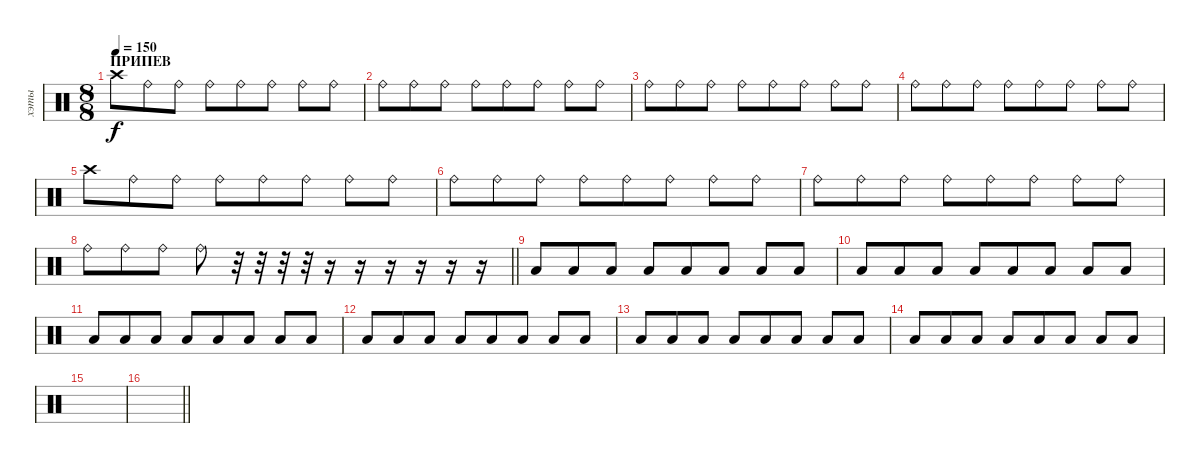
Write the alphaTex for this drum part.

\track ("хэты" "хэты") {instrument percussion}
\staff {score}
\articulation defaults
\ts (8 8)
\section ("" "ПРИПЕВ")
\tempo 150
\clef neutral
\ks c "Crash high (hit)".8{dy f} "Ride (bell)".8 "Ride (bell)".8 "Ride (bell)".8 "Ride (bell)".8 "Ride (bell)".8 "Ride (bell)".8 "Ride (bell)".8
|
"Ride (bell)".8 "Ride (bell)".8 "Ride (bell)".8 "Ride (bell)".8 "Ride (bell)".8 "Ride (bell)".8 "Ride (bell)".8 "Ride (bell)".8 |
"Ride (bell)".8 "Ride (bell)".8 "Ride (bell)".8 "Ride (bell)".8 "Ride (bell)".8 "Ride (bell)".8 "Ride (bell)".8 "Ride (bell)".8 |
"Ride (bell)".8 "Ride (bell)".8 "Ride (bell)".8 "Ride (bell)".8 "Ride (bell)".8 "Ride (bell)".8 "Ride (bell)".8 "Ride (bell)".8 |
"Crash high (hit)".8 "Ride (bell)".8 "Ride (bell)".8 "Ride (bell)".8 "Ride (bell)".8 "Ride (bell)".8 "Ride (bell)".8 "Ride (bell)".8 |
"Ride (bell)".8 "Ride (bell)".8 "Ride (bell)".8 "Ride (bell)".8 "Ride (bell)".8 "Ride (bell)".8 "Ride (bell)".8 "Ride (bell)".8 |
"Ride (bell)".8 "Ride (bell)".8 "Ride (bell)".8 "Ride (bell)".8 "Ride (bell)".8 "Ride (bell)".8 "Ride (bell)".8 "Ride (bell)".8 |
\barLineRight lightlight "Ride (bell)".8 "Ride (bell)".8 "Ride (bell)".8 "Ride (bell)".8
r.32 r.32 r.32 r.32 r.16 r.16 r.16 r.16 r.16 r.16 |
"Low Tom (hit)".8 "Low Tom (hit)".8 "Low Tom (hit)".8 "Low Tom (hit)".8 "Low Tom (hit)".8 "Low Tom (hit)".8 "Low Tom (hit)".8 "Low Tom (hit)".8 |
"Low Tom (hit)".8 "Low Tom (hit)".8 "Low Tom (hit)".8 "Low Tom (hit)".8 "Low Tom (hit)".8 "Low Tom (hit)".8 "Low Tom (hit)".8 "Low Tom (hit)".8 |
"Low Tom (hit)".8 "Low Tom (hit)".8 "Low Tom (hit)".8 "Low Tom (hit)".8 "Low Tom (hit)".8 "Low Tom (hit)".8 "Low Tom (hit)".8 "Low Tom (hit)".8 |
"Low Tom (hit)".8 "Low Tom (hit)".8 "Low Tom (hit)".8 "Low Tom (hit)".8 "Low Tom (hit)".8 "Low Tom (hit)".8 "Low Tom (hit)".8 "Low Tom (hit)".8 |
"Low Tom (hit)".8 "Low Tom (hit)".8 "Low Tom (hit)".8 "Low Tom (hit)".8 "Low Tom (hit)".8 "Low Tom (hit)".8 "Low Tom (hit)".8 "Low Tom (hit)".8 |
"Low Tom (hit)".8 "Low Tom (hit)".8 "Low Tom (hit)".8 "Low Tom (hit)".8 "Low Tom (hit)".8 "Low Tom (hit)".8 "Low Tom (hit)".8 "Low Tom (hit)".8 |
|
\barLineRight lightlight
